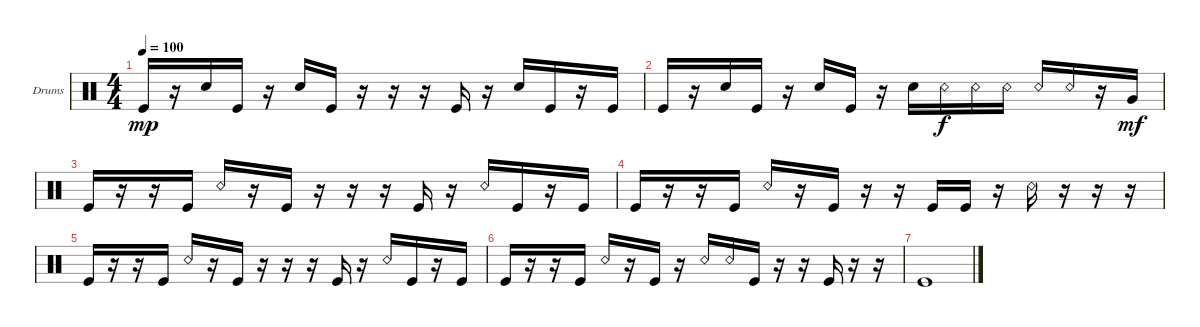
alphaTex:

\defaultSystemsLayout 4
\bracketExtendMode groupsimilarinstruments
\firstSystemTrackNameOrientation horizontal
\otherSystemsTrackNameOrientation horizontal
\track ("Drumkit" "Drums") {instrument percussion}
\staff {score}
\articulation defaults
\ts (4 4)
\tempo 100
\clef neutral
\ks c "Kick (hit)".16{dy mp}
r.16 "Snare (hit) 2".16 "Kick (hit)".16 r.16 "Snare (hit) 2".16 "Kick (hit)".16 r.16 r.16 r.16 "Kick (hit)".16 r.16 "Snare (hit) 2".16 "Kick (hit)".16 r.16 "Kick (hit)".16 |
"Kick (hit)".16 r.16 "Snare (hit) 2".16 "Kick (hit)".16 r.16 "Snare (hit) 2".16 "Kick (hit)".16 r.16 "Snare (hit) 2".16 "Snare (rim shot)".16{dy f} "Snare (rim shot)".16 "Snare (rim shot)".16 "Snare (rim shot)".16 "Snare (rim shot)".16 r.16 "Very Low Tom (hit)".16{dy mf} |
"Kick (hit)".16 r.16 r.16 "Kick (hit)".16 "Snare (rim shot)".16 r.16 "Kick (hit)".16 r.16 r.16 r.16 "Kick (hit)".16 r.16 "Snare (rim shot)".16 "Kick (hit)".16 r.16 "Kick (hit)".16 |
"Kick (hit)".16 r.16 r.16 "Kick (hit)".16 "Snare (rim shot)".16 r.16 "Kick (hit)".16 r.16 r.16 "Kick (hit)".16 "Kick (hit)".16 r.16 "Snare (rim shot)".16 r.16 r.16 r.16 |
"Kick (hit)".16 r.16 r.16 "Kick (hit)".16 "Snare (rim shot)".16 r.16 "Kick (hit)".16 r.16 r.16 r.16 "Kick (hit)".16 r.16 "Snare (rim shot)".16 "Kick (hit)".16 r.16 "Kick (hit)".16 |
"Kick (hit)".16 r.16 r.16 "Kick (hit)".16 "Snare (rim shot)".16 r.16 "Kick (hit)".16 r.16 "Snare (rim shot)".16 "Snare (rim shot)".16 "Kick (hit)".16 r.16 r.16 "Kick (hit)".16 r.16 r.16 |
"Kick (hit)".1
